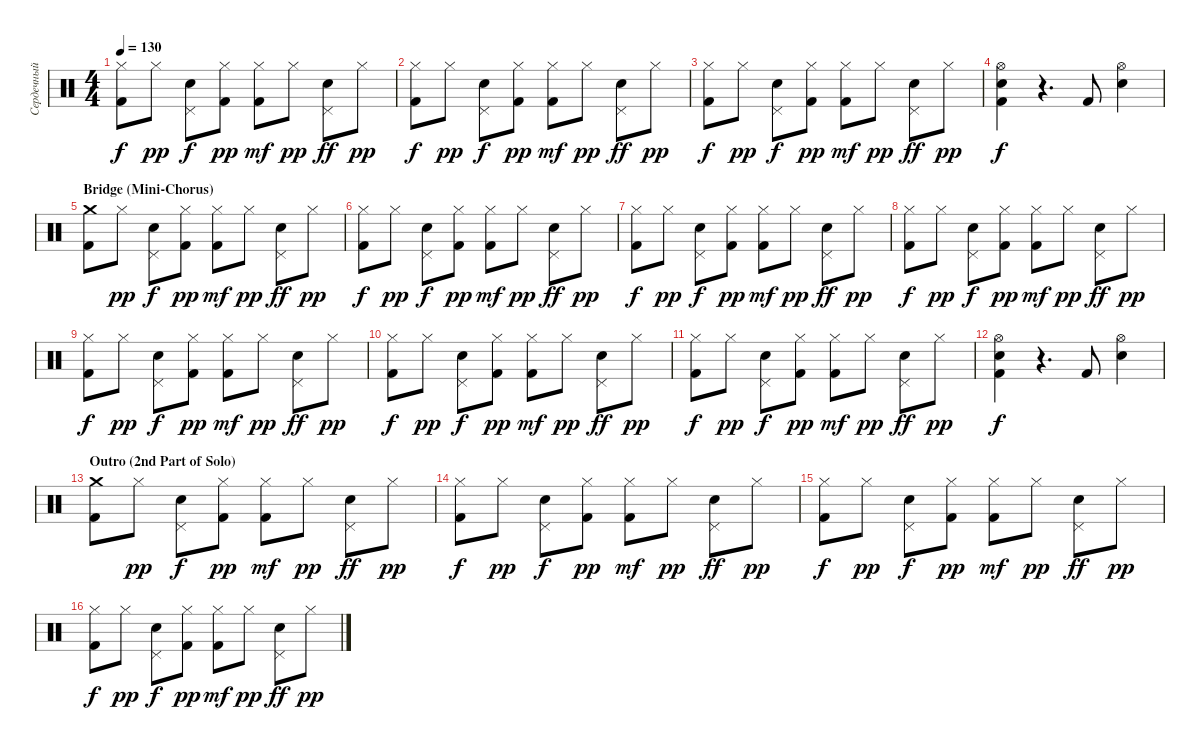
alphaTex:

\track ("Сердечный (Ударные)" "Сердечный ") {instrument percussion}
\staff {score}
\articulation defaults
\ts (4 4)
\tempo 130
\clef neutral
\ks c
("Hi-Hat (closed)" "Kick (hit) 2").8{dy f} "Hi-Hat (closed)".8{dy pp} ("Pedal Hi-Hat (hit)" "Electric Snare (hit)").8{dy f} ("Hi-Hat (closed)" "Kick (hit) 2").8{dy pp} ("Hi-Hat (closed)" "Kick (hit) 2").8{dy mf} "Hi-Hat (closed)".8{dy pp} ("Pedal Hi-Hat (hit)" "Electric Snare (hit)").8{dy ff} "Hi-Hat (closed)".8{dy pp} |
("Hi-Hat (closed)" "Kick (hit) 2").8{dy f} "Hi-Hat (closed)".8{dy pp} ("Pedal Hi-Hat (hit)" "Electric Snare (hit)").8{dy f} ("Hi-Hat (closed)" "Kick (hit) 2").8{dy pp} ("Hi-Hat (closed)" "Kick (hit) 2").8{dy mf} "Hi-Hat (closed)".8{dy pp} ("Pedal Hi-Hat (hit)" "Electric Snare (hit)").8{dy ff} "Hi-Hat (closed)".8{dy pp} |
("Hi-Hat (closed)" "Kick (hit) 2").8{dy f} "Hi-Hat (closed)".8{dy pp} ("Pedal Hi-Hat (hit)" "Electric Snare (hit)").8{dy f} ("Hi-Hat (closed)" "Kick (hit) 2").8{dy pp} ("Hi-Hat (closed)" "Kick (hit) 2").8{dy mf} "Hi-Hat (closed)".8{dy pp} ("Pedal Hi-Hat (hit)" "Electric Snare (hit)").8{dy ff} "Hi-Hat (closed)".8{dy pp} |
("Kick (hit) 2" "Electric Snare (hit)" "Hi-Hat (open)").4{dy f} r.4{d} "Kick (hit) 2".8 ("Hi-Hat (open)" "Electric Snare (hit)").4 |
\section ("" "Bridge (Mini-Chorus)")
("Kick (hit) 2" "Crash medium (hit)").8 "Hi-Hat (closed)".8{dy pp} ("Pedal Hi-Hat (hit)" "Electric Snare (hit)").8{dy f} ("Hi-Hat (closed)" "Kick (hit) 2").8{dy pp} ("Hi-Hat (closed)" "Kick (hit) 2").8{dy mf} "Hi-Hat (closed)".8{dy pp} ("Pedal Hi-Hat (hit)" "Electric Snare (hit)").8{dy ff} "Hi-Hat (closed)".8{dy pp} |
("Hi-Hat (closed)" "Kick (hit) 2").8{dy f} "Hi-Hat (closed)".8{dy pp} ("Pedal Hi-Hat (hit)" "Electric Snare (hit)").8{dy f} ("Hi-Hat (closed)" "Kick (hit) 2").8{dy pp} ("Hi-Hat (closed)" "Kick (hit) 2").8{dy mf} "Hi-Hat (closed)".8{dy pp} ("Pedal Hi-Hat (hit)" "Electric Snare (hit)").8{dy ff} "Hi-Hat (closed)".8{dy pp} |
("Hi-Hat (closed)" "Kick (hit) 2").8{dy f} "Hi-Hat (closed)".8{dy pp} ("Pedal Hi-Hat (hit)" "Electric Snare (hit)").8{dy f} ("Hi-Hat (closed)" "Kick (hit) 2").8{dy pp} ("Hi-Hat (closed)" "Kick (hit) 2").8{dy mf} "Hi-Hat (closed)".8{dy pp} ("Pedal Hi-Hat (hit)" "Electric Snare (hit)").8{dy ff} "Hi-Hat (closed)".8{dy pp} |
("Hi-Hat (closed)" "Kick (hit) 2").8{dy f} "Hi-Hat (closed)".8{dy pp} ("Pedal Hi-Hat (hit)" "Electric Snare (hit)").8{dy f} ("Hi-Hat (closed)" "Kick (hit) 2").8{dy pp} ("Hi-Hat (closed)" "Kick (hit) 2").8{dy mf} "Hi-Hat (closed)".8{dy pp} ("Pedal Hi-Hat (hit)" "Electric Snare (hit)").8{dy ff} "Hi-Hat (closed)".8{dy pp} |
("Hi-Hat (closed)" "Kick (hit) 2").8{dy f} "Hi-Hat (closed)".8{dy pp} ("Pedal Hi-Hat (hit)" "Electric Snare (hit)").8{dy f} ("Hi-Hat (closed)" "Kick (hit) 2").8{dy pp} ("Hi-Hat (closed)" "Kick (hit) 2").8{dy mf} "Hi-Hat (closed)".8{dy pp} ("Pedal Hi-Hat (hit)" "Electric Snare (hit)").8{dy ff} "Hi-Hat (closed)".8{dy pp} |
("Hi-Hat (closed)" "Kick (hit) 2").8{dy f} "Hi-Hat (closed)".8{dy pp} ("Pedal Hi-Hat (hit)" "Electric Snare (hit)").8{dy f} ("Hi-Hat (closed)" "Kick (hit) 2").8{dy pp} ("Hi-Hat (closed)" "Kick (hit) 2").8{dy mf} "Hi-Hat (closed)".8{dy pp} ("Pedal Hi-Hat (hit)" "Electric Snare (hit)").8{dy ff} "Hi-Hat (closed)".8{dy pp} |
("Hi-Hat (closed)" "Kick (hit) 2").8{dy f} "Hi-Hat (closed)".8{dy pp} ("Pedal Hi-Hat (hit)" "Electric Snare (hit)").8{dy f} ("Hi-Hat (closed)" "Kick (hit) 2").8{dy pp} ("Hi-Hat (closed)" "Kick (hit) 2").8{dy mf} "Hi-Hat (closed)".8{dy pp} ("Pedal Hi-Hat (hit)" "Electric Snare (hit)").8{dy ff} "Hi-Hat (closed)".8{dy pp} |
("Kick (hit) 2" "Electric Snare (hit)" "Hi-Hat (open)").4{dy f} r.4{d} "Kick (hit) 2".8 ("Hi-Hat (open)" "Electric Snare (hit)").4 |
\section ("" "Outro (2nd Part of Solo)")
("Kick (hit) 2" "Crash medium (hit)").8 "Hi-Hat (closed)".8{dy pp} ("Pedal Hi-Hat (hit)" "Electric Snare (hit)").8{dy f} ("Hi-Hat (closed)" "Kick (hit) 2").8{dy pp} ("Hi-Hat (closed)" "Kick (hit) 2").8{dy mf} "Hi-Hat (closed)".8{dy pp} ("Pedal Hi-Hat (hit)" "Electric Snare (hit)").8{dy ff} "Hi-Hat (closed)".8{dy pp} |
("Hi-Hat (closed)" "Kick (hit) 2").8{dy f} "Hi-Hat (closed)".8{dy pp} ("Pedal Hi-Hat (hit)" "Electric Snare (hit)").8{dy f} ("Hi-Hat (closed)" "Kick (hit) 2").8{dy pp} ("Hi-Hat (closed)" "Kick (hit) 2").8{dy mf} "Hi-Hat (closed)".8{dy pp} ("Pedal Hi-Hat (hit)" "Electric Snare (hit)").8{dy ff} "Hi-Hat (closed)".8{dy pp} |
("Hi-Hat (closed)" "Kick (hit) 2").8{dy f} "Hi-Hat (closed)".8{dy pp} ("Pedal Hi-Hat (hit)" "Electric Snare (hit)").8{dy f} ("Hi-Hat (closed)" "Kick (hit) 2").8{dy pp} ("Hi-Hat (closed)" "Kick (hit) 2").8{dy mf} "Hi-Hat (closed)".8{dy pp} ("Pedal Hi-Hat (hit)" "Electric Snare (hit)").8{dy ff} "Hi-Hat (closed)".8{dy pp} |
("Hi-Hat (closed)" "Kick (hit) 2").8{dy f} "Hi-Hat (closed)".8{dy pp} ("Pedal Hi-Hat (hit)" "Electric Snare (hit)").8{dy f} ("Hi-Hat (closed)" "Kick (hit) 2").8{dy pp} ("Hi-Hat (closed)" "Kick (hit) 2").8{dy mf} "Hi-Hat (closed)".8{dy pp} ("Pedal Hi-Hat (hit)" "Electric Snare (hit)").8{dy ff} "Hi-Hat (closed)".8{dy pp}
